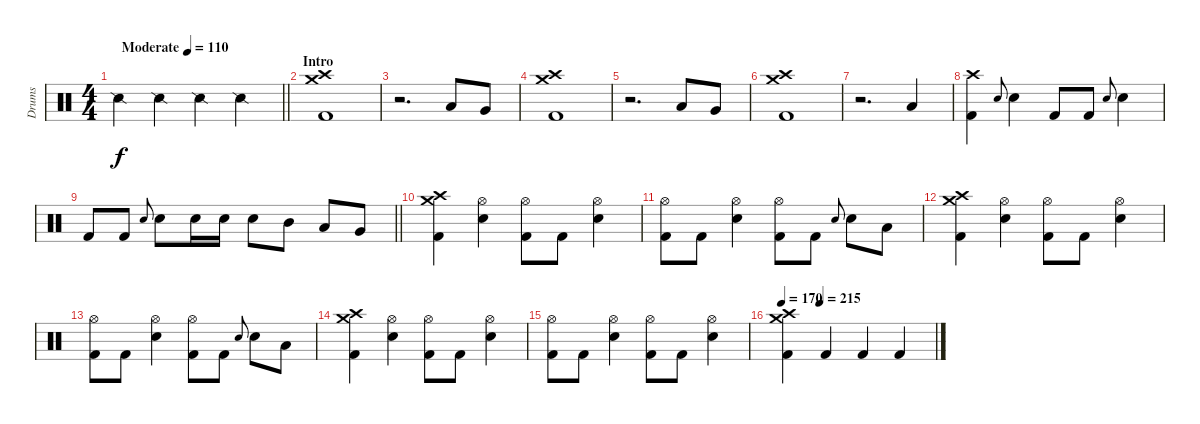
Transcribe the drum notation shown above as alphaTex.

\track ("Drums" "Drums") {instrument percussion}
\staff {score}
\articulation defaults
\ts (4 4)
\tempo (110 "Moderate")
\clef neutral
\barLineRight lightlight
\ks c "Snare (side stick) 2".4{dy f} "Snare (side stick) 2".4 "Snare (side stick) 2".4 "Snare (side stick) 2".4
|
\section ("" "Intro")
("Crash medium (hit)" "Crash high (hit)" "Kick (hit) 2").1 |
r.2{d} "Low Tom (hit)".8 "Very Low Tom (hit)".8 |
("Crash medium (hit)" "Crash high (hit)" "Kick (hit) 2").1 |
r.2{d} "Low Tom (hit)".8 "Very Low Tom (hit)".8 |
("Crash medium (hit)" "Crash high (hit)" "Kick (hit) 2").1 |
r.2{d} "Low Tom (hit)".4 |
("Crash high (hit)" "Kick (hit) 2").4 "Snare (hit) 2".8{gr onbeat} "Snare (hit) 2".4 "Kick (hit) 2".8 "Kick (hit) 2".8 "Snare (hit) 2".8{gr onbeat} "Snare (hit) 2".4 |
\barLineRight lightlight "Kick (hit) 2".8 "Kick (hit) 2".8 "Snare (hit) 2".8{gr onbeat} "Snare (hit) 2".8 "Snare (hit) 2".16 "Snare (hit) 2".16 "Snare (hit) 2".8 "Mid Tom (hit)".8 "Low Tom (hit)".8 "Very Low Tom (hit)".8
|
("Crash medium (hit)" "Crash high (hit)" "Kick (hit) 2").4 ("Hi-Hat (open)" "Snare (hit) 2").4 ("Hi-Hat (open)" "Kick (hit) 2").8 "Kick (hit) 2".8 ("Hi-Hat (open)" "Snare (hit) 2").4 |
("Hi-Hat (open)" "Kick (hit) 2").8 "Kick (hit) 2".8 ("Hi-Hat (open)" "Snare (hit) 2").4 ("Hi-Hat (open)" "Kick (hit) 2").8 "Kick (hit) 2".8 "Snare (hit) 2".8{gr onbeat} "Snare (hit) 2".8 "Low Tom (hit)".8 |
("Crash medium (hit)" "Crash high (hit)" "Kick (hit) 2").4 ("Hi-Hat (open)" "Snare (hit) 2").4 ("Hi-Hat (open)" "Kick (hit) 2").8 "Kick (hit) 2".8 ("Hi-Hat (open)" "Snare (hit) 2").4 |
("Hi-Hat (open)" "Kick (hit) 2").8 "Kick (hit) 2".8 ("Hi-Hat (open)" "Snare (hit) 2").4 ("Hi-Hat (open)" "Kick (hit) 2").8 "Kick (hit) 2".8 "Snare (hit) 2".8{gr onbeat} "Snare (hit) 2".8 "Low Tom (hit)".8 |
("Crash medium (hit)" "Crash high (hit)" "Kick (hit) 2").4 ("Hi-Hat (open)" "Snare (hit) 2").4 ("Hi-Hat (open)" "Kick (hit) 2").8 "Kick (hit) 2".8 ("Hi-Hat (open)" "Snare (hit) 2").4 |
("Hi-Hat (open)" "Kick (hit) 2").8 "Kick (hit) 2".8 ("Hi-Hat (open)" "Snare (hit) 2").4 ("Hi-Hat (open)" "Kick (hit) 2").8 "Kick (hit) 2".8 ("Hi-Hat (open)" "Snare (hit) 2").4 |
\tempo 170
\tempo (215 0.25)
("Crash high (hit)" "Crash medium (hit)" "Kick (hit) 2").4 "Kick (hit) 2".4 "Kick (hit) 2".4 "Kick (hit) 2".4
